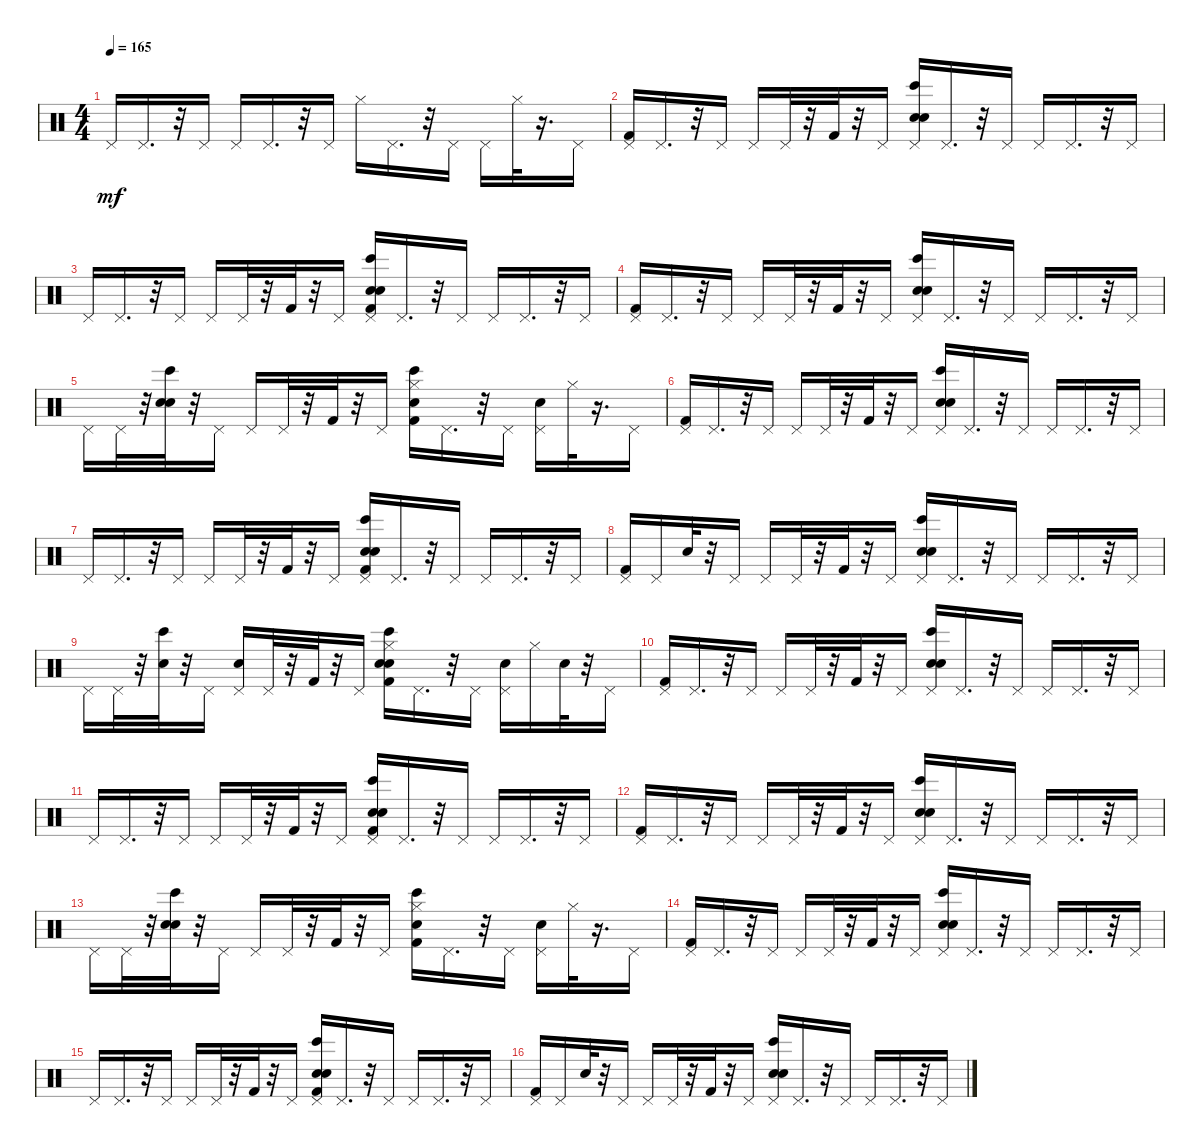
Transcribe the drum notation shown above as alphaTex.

\track (" " " ") {instrument percussion}
\staff {score}
\articulation defaults
\ts (4 4)
\tempo 165
\clef neutral
\ks c "Pedal Hi-Hat (hit)".16{dy mf} "Pedal Hi-Hat (hit)".16{d}
r.32 "Pedal Hi-Hat (hit)".16 "Pedal Hi-Hat (hit)".16 "Pedal Hi-Hat (hit)".16{d} r.32 "Pedal Hi-Hat (hit)".16 "Hi-Hat (closed)".16 "Pedal Hi-Hat (hit)".16{d} r.32 "Pedal Hi-Hat (hit)".16 "Pedal Hi-Hat (hit)".16 "Hi-Hat (closed)".32 r.16{d} "Pedal Hi-Hat (hit)".16 |
("Kick (hit) 2" "Pedal Hi-Hat (hit)").16 "Pedal Hi-Hat (hit)".16{d} r.32 "Pedal Hi-Hat (hit)".16 "Pedal Hi-Hat (hit)".16 "Pedal Hi-Hat (hit)".32 r.32 "Kick (hit) 2".32 r.32 "Pedal Hi-Hat (hit)".16 ("Bongo High (hit)" "Hand Clap (hit)" "Electric Snare (hit)" "Pedal Hi-Hat (hit)").16 "Pedal Hi-Hat (hit)".16{d} r.32 "Pedal Hi-Hat (hit)".16 "Pedal Hi-Hat (hit)".16 "Pedal Hi-Hat (hit)".16{d} r.32 "Pedal Hi-Hat (hit)".16 |
"Pedal Hi-Hat (hit)".16 "Pedal Hi-Hat (hit)".16{d} r.32 "Pedal Hi-Hat (hit)".16 "Pedal Hi-Hat (hit)".16 "Pedal Hi-Hat (hit)".32 r.32 "Kick (hit) 2".32 r.32 "Pedal Hi-Hat (hit)".16 ("Bongo High (hit)" "Kick (hit) 2" "Hand Clap (hit)" "Electric Snare (hit)" "Pedal Hi-Hat (hit)").16 "Pedal Hi-Hat (hit)".16{d} r.32 "Pedal Hi-Hat (hit)".16 "Pedal Hi-Hat (hit)".16 "Pedal Hi-Hat (hit)".16{d} r.32 "Pedal Hi-Hat (hit)".16 |
("Kick (hit) 2" "Pedal Hi-Hat (hit)").16 "Pedal Hi-Hat (hit)".16{d} r.32 "Pedal Hi-Hat (hit)".16 "Pedal Hi-Hat (hit)".16 "Pedal Hi-Hat (hit)".32 r.32 "Kick (hit) 2".32 r.32 "Pedal Hi-Hat (hit)".16 ("Bongo High (hit)" "Hand Clap (hit)" "Electric Snare (hit)" "Pedal Hi-Hat (hit)").16 "Pedal Hi-Hat (hit)".16{d} r.32 "Pedal Hi-Hat (hit)".16 "Pedal Hi-Hat (hit)".16 "Pedal Hi-Hat (hit)".16{d} r.32 "Pedal Hi-Hat (hit)".16 |
"Pedal Hi-Hat (hit)".16 "Pedal Hi-Hat (hit)".32 r.32 ("Bongo High (hit)" "Hand Clap (hit)" "Electric Snare (hit)").32 r.32 "Pedal Hi-Hat (hit)".16 "Pedal Hi-Hat (hit)".16 "Pedal Hi-Hat (hit)".32 r.32 "Kick (hit) 2".32 r.32 "Pedal Hi-Hat (hit)".16 ("Bongo High (hit)" "Kick (hit) 2" "Hand Clap (hit)" "Hi-Hat (closed)").16 "Pedal Hi-Hat (hit)".16{d} r.32 "Pedal Hi-Hat (hit)".16 ("Electric Snare (hit)" "Pedal Hi-Hat (hit)").16 "Hi-Hat (closed)".32 r.16{d} "Pedal Hi-Hat (hit)".16 |
("Kick (hit) 2" "Pedal Hi-Hat (hit)").16 "Pedal Hi-Hat (hit)".16{d} r.32 "Pedal Hi-Hat (hit)".16 "Pedal Hi-Hat (hit)".16 "Pedal Hi-Hat (hit)".32 r.32 "Kick (hit) 2".32 r.32 "Pedal Hi-Hat (hit)".16 ("Bongo High (hit)" "Hand Clap (hit)" "Electric Snare (hit)" "Pedal Hi-Hat (hit)").16 "Pedal Hi-Hat (hit)".16{d} r.32 "Pedal Hi-Hat (hit)".16 "Pedal Hi-Hat (hit)".16 "Pedal Hi-Hat (hit)".16{d} r.32 "Pedal Hi-Hat (hit)".16 |
"Pedal Hi-Hat (hit)".16 "Pedal Hi-Hat (hit)".16{d} r.32 "Pedal Hi-Hat (hit)".16 "Pedal Hi-Hat (hit)".16 "Pedal Hi-Hat (hit)".32 r.32 "Kick (hit) 2".32 r.32 "Pedal Hi-Hat (hit)".16 ("Bongo High (hit)" "Kick (hit) 2" "Hand Clap (hit)" "Electric Snare (hit)" "Pedal Hi-Hat (hit)").16 "Pedal Hi-Hat (hit)".16{d} r.32 "Pedal Hi-Hat (hit)".16 "Pedal Hi-Hat (hit)".16 "Pedal Hi-Hat (hit)".16{d} r.32 "Pedal Hi-Hat (hit)".16 |
("Kick (hit) 2" "Pedal Hi-Hat (hit)").16 "Pedal Hi-Hat (hit)".16 "Electric Snare (hit)".32 r.32 "Pedal Hi-Hat (hit)".16 "Pedal Hi-Hat (hit)".16 "Pedal Hi-Hat (hit)".32 r.32 "Kick (hit) 2".32 r.32 "Pedal Hi-Hat (hit)".16 ("Bongo High (hit)" "Hand Clap (hit)" "Electric Snare (hit)" "Pedal Hi-Hat (hit)").16 "Pedal Hi-Hat (hit)".16{d} r.32 "Pedal Hi-Hat (hit)".16 "Pedal Hi-Hat (hit)".16 "Pedal Hi-Hat (hit)".16{d} r.32 "Pedal Hi-Hat (hit)".16 |
"Pedal Hi-Hat (hit)".16 "Pedal Hi-Hat (hit)".32 r.32 ("Bongo High (hit)" "Hand Clap (hit)").32 r.32 "Pedal Hi-Hat (hit)".16 ("Electric Snare (hit)" "Pedal Hi-Hat (hit)").16 "Pedal Hi-Hat (hit)".32 r.32 "Kick (hit) 2".32 r.32 "Pedal Hi-Hat (hit)".16 ("Bongo High (hit)" "Kick (hit) 2" "Hand Clap (hit)" "Electric Snare (hit)" "Hi-Hat (closed)").16 "Pedal Hi-Hat (hit)".16{d} r.32 "Pedal Hi-Hat (hit)".16 ("Electric Snare (hit)" "Pedal Hi-Hat (hit)").16 "Hi-Hat (closed)".16 "Electric Snare (hit)".32 r.32 "Pedal Hi-Hat (hit)".16 |
("Kick (hit) 2" "Pedal Hi-Hat (hit)").16 "Pedal Hi-Hat (hit)".16{d} r.32 "Pedal Hi-Hat (hit)".16 "Pedal Hi-Hat (hit)".16 "Pedal Hi-Hat (hit)".32 r.32 "Kick (hit) 2".32 r.32 "Pedal Hi-Hat (hit)".16 ("Bongo High (hit)" "Hand Clap (hit)" "Electric Snare (hit)" "Pedal Hi-Hat (hit)").16 "Pedal Hi-Hat (hit)".16{d} r.32 "Pedal Hi-Hat (hit)".16 "Pedal Hi-Hat (hit)".16 "Pedal Hi-Hat (hit)".16{d} r.32 "Pedal Hi-Hat (hit)".16 |
"Pedal Hi-Hat (hit)".16 "Pedal Hi-Hat (hit)".16{d} r.32 "Pedal Hi-Hat (hit)".16 "Pedal Hi-Hat (hit)".16 "Pedal Hi-Hat (hit)".32 r.32 "Kick (hit) 2".32 r.32 "Pedal Hi-Hat (hit)".16 ("Bongo High (hit)" "Kick (hit) 2" "Hand Clap (hit)" "Electric Snare (hit)" "Pedal Hi-Hat (hit)").16 "Pedal Hi-Hat (hit)".16{d} r.32 "Pedal Hi-Hat (hit)".16 "Pedal Hi-Hat (hit)".16 "Pedal Hi-Hat (hit)".16{d} r.32 "Pedal Hi-Hat (hit)".16 |
("Kick (hit) 2" "Pedal Hi-Hat (hit)").16 "Pedal Hi-Hat (hit)".16{d} r.32 "Pedal Hi-Hat (hit)".16 "Pedal Hi-Hat (hit)".16 "Pedal Hi-Hat (hit)".32 r.32 "Kick (hit) 2".32 r.32 "Pedal Hi-Hat (hit)".16 ("Bongo High (hit)" "Hand Clap (hit)" "Electric Snare (hit)" "Pedal Hi-Hat (hit)").16 "Pedal Hi-Hat (hit)".16{d} r.32 "Pedal Hi-Hat (hit)".16 "Pedal Hi-Hat (hit)".16 "Pedal Hi-Hat (hit)".16{d} r.32 "Pedal Hi-Hat (hit)".16 |
"Pedal Hi-Hat (hit)".16 "Pedal Hi-Hat (hit)".32 r.32 ("Bongo High (hit)" "Hand Clap (hit)" "Electric Snare (hit)").32 r.32 "Pedal Hi-Hat (hit)".16 "Pedal Hi-Hat (hit)".16 "Pedal Hi-Hat (hit)".32 r.32 "Kick (hit) 2".32 r.32 "Pedal Hi-Hat (hit)".16 ("Bongo High (hit)" "Kick (hit) 2" "Hand Clap (hit)" "Hi-Hat (closed)").16 "Pedal Hi-Hat (hit)".16{d} r.32 "Pedal Hi-Hat (hit)".16 ("Electric Snare (hit)" "Pedal Hi-Hat (hit)").16 "Hi-Hat (closed)".32 r.16{d} "Pedal Hi-Hat (hit)".16 |
("Kick (hit) 2" "Pedal Hi-Hat (hit)").16 "Pedal Hi-Hat (hit)".16{d} r.32 "Pedal Hi-Hat (hit)".16 "Pedal Hi-Hat (hit)".16 "Pedal Hi-Hat (hit)".32 r.32 "Kick (hit) 2".32 r.32 "Pedal Hi-Hat (hit)".16 ("Bongo High (hit)" "Hand Clap (hit)" "Electric Snare (hit)" "Pedal Hi-Hat (hit)").16 "Pedal Hi-Hat (hit)".16{d} r.32 "Pedal Hi-Hat (hit)".16 "Pedal Hi-Hat (hit)".16 "Pedal Hi-Hat (hit)".16{d} r.32 "Pedal Hi-Hat (hit)".16 |
"Pedal Hi-Hat (hit)".16 "Pedal Hi-Hat (hit)".16{d} r.32 "Pedal Hi-Hat (hit)".16 "Pedal Hi-Hat (hit)".16 "Pedal Hi-Hat (hit)".32 r.32 "Kick (hit) 2".32 r.32 "Pedal Hi-Hat (hit)".16 ("Bongo High (hit)" "Kick (hit) 2" "Hand Clap (hit)" "Electric Snare (hit)" "Pedal Hi-Hat (hit)").16 "Pedal Hi-Hat (hit)".16{d} r.32 "Pedal Hi-Hat (hit)".16 "Pedal Hi-Hat (hit)".16 "Pedal Hi-Hat (hit)".16{d} r.32 "Pedal Hi-Hat (hit)".16 |
("Kick (hit) 2" "Pedal Hi-Hat (hit)").16 "Pedal Hi-Hat (hit)".16 "Electric Snare (hit)".32 r.32 "Pedal Hi-Hat (hit)".16 "Pedal Hi-Hat (hit)".16 "Pedal Hi-Hat (hit)".32 r.32 "Kick (hit) 2".32 r.32 "Pedal Hi-Hat (hit)".16 ("Bongo High (hit)" "Hand Clap (hit)" "Electric Snare (hit)" "Pedal Hi-Hat (hit)").16 "Pedal Hi-Hat (hit)".16{d} r.32 "Pedal Hi-Hat (hit)".16 "Pedal Hi-Hat (hit)".16 "Pedal Hi-Hat (hit)".16{d} r.32 "Pedal Hi-Hat (hit)".16
